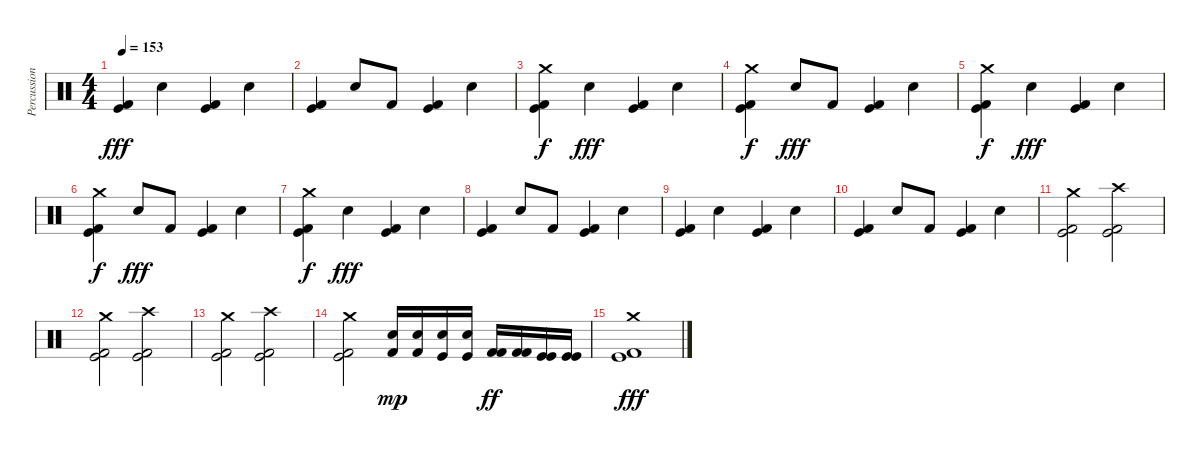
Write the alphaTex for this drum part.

\track ("Percussion" "Percussion") {instrument percussion}
\staff {score}
\articulation defaults
\ts (4 4)
\tempo 153
\clef neutral
\ks c
("Kick (hit)" "Kick (hit) 2").4{dy fff} "Snare (hit) 2".4 ("Kick (hit)" "Kick (hit) 2").4 "Snare (hit) 2".4 |
("Kick (hit)" "Kick (hit) 2").4 "Snare (hit) 2".8 "Kick (hit) 2".8 ("Kick (hit)" "Kick (hit) 2").4 "Snare (hit) 2".4 |
("Crash medium (hit)" "Kick (hit)" "Kick (hit) 2").4{dy f} "Snare (hit) 2".4{dy fff} ("Kick (hit)" "Kick (hit) 2").4 "Snare (hit) 2".4 |
("Crash medium (hit)" "Kick (hit)" "Kick (hit) 2").4{dy f} "Snare (hit) 2".8{dy fff} "Kick (hit) 2".8 ("Kick (hit)" "Kick (hit) 2").4 "Snare (hit) 2".4 |
("Crash medium (hit)" "Kick (hit)" "Kick (hit) 2").4{dy f} "Snare (hit) 2".4{dy fff} ("Kick (hit)" "Kick (hit) 2").4 "Snare (hit) 2".4 |
("Crash medium (hit)" "Kick (hit)" "Kick (hit) 2").4{dy f} "Snare (hit) 2".8{dy fff} "Kick (hit) 2".8 ("Kick (hit)" "Kick (hit) 2").4 "Snare (hit) 2".4 |
("Crash medium (hit)" "Kick (hit)" "Kick (hit) 2").4{dy f} "Snare (hit) 2".4{dy fff} ("Kick (hit)" "Kick (hit) 2").4 "Snare (hit) 2".4 |
("Kick (hit)" "Kick (hit) 2").4 "Snare (hit) 2".8 "Kick (hit) 2".8 ("Kick (hit)" "Kick (hit) 2").4 "Snare (hit) 2".4 |
("Kick (hit)" "Kick (hit) 2").4 "Snare (hit) 2".4 ("Kick (hit)" "Kick (hit) 2").4 "Snare (hit) 2".4 |
("Kick (hit)" "Kick (hit) 2").4 "Snare (hit) 2".8 "Kick (hit) 2".8 ("Kick (hit)" "Kick (hit) 2").4 "Snare (hit) 2".4 |
("Crash medium (hit)" "Kick (hit)" "Kick (hit) 2").2 ("Crash high (hit)" "Kick (hit)" "Kick (hit) 2").2 |
("Crash medium (hit)" "Kick (hit)" "Kick (hit) 2").2 ("Crash high (hit)" "Kick (hit)" "Kick (hit) 2").2 |
("Crash medium (hit)" "Kick (hit)" "Kick (hit) 2").2 ("Crash high (hit)" "Kick (hit)" "Kick (hit) 2").2 |
("Crash medium (hit)" "Kick (hit)" "Kick (hit) 2").2 ("Kick (hit) 2" "Snare (hit) 2").16{dy mp} ("Kick (hit) 2" "Snare (hit) 2").16 ("Kick (hit)" "Snare (hit) 2").16 ("Kick (hit)" "Snare (hit) 2").16 ("Kick (hit) 2" "Kick (hit) 2").16{dy ff} ("Kick (hit) 2" "Kick (hit) 2").16 ("Kick (hit)" "Kick (hit)").16 ("Kick (hit)" "Kick (hit)").16 |
("Crash medium (hit)" "Kick (hit)" "Kick (hit) 2").1{dy fff}
